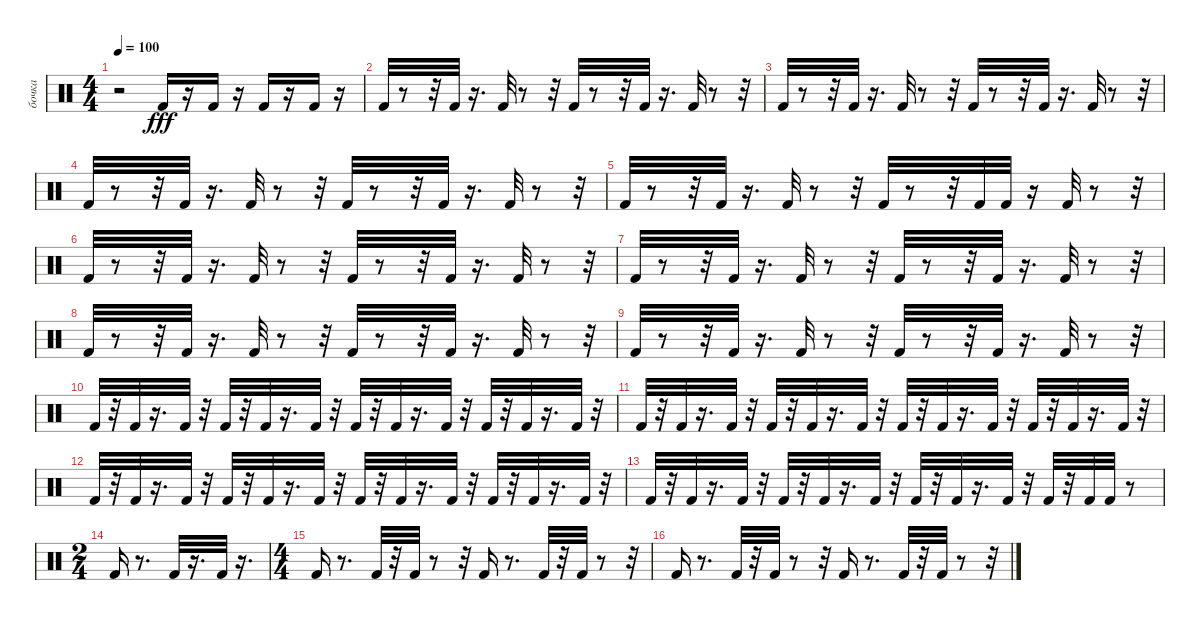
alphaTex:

\track ("бочка" "бочка") {instrument percussion}
\staff {score}
\articulation defaults
\ts (4 4)
\tempo 100
\clef neutral
\ks c
r.2{dy fff} "Kick (hit) 2".16 r.16 "Kick (hit) 2".16 r.16 "Kick (hit) 2".16 r.16 "Kick (hit) 2".16 r.16 |
"Kick (hit) 2".32 r.8 r.32 "Kick (hit) 2".32 r.16{d} "Kick (hit) 2".32 r.8 r.32 "Kick (hit) 2".32 r.8 r.32 "Kick (hit) 2".32 r.16{d} "Kick (hit) 2".32 r.8 r.32 |
"Kick (hit) 2".32 r.8 r.32 "Kick (hit) 2".32 r.16{d} "Kick (hit) 2".32 r.8 r.32 "Kick (hit) 2".32 r.8 r.32 "Kick (hit) 2".32 r.16{d} "Kick (hit) 2".32 r.8 r.32 |
"Kick (hit) 2".32 r.8 r.32 "Kick (hit) 2".32 r.16{d} "Kick (hit) 2".32 r.8 r.32 "Kick (hit) 2".32 r.8 r.32 "Kick (hit) 2".32 r.16{d} "Kick (hit) 2".32 r.8 r.32 |
"Kick (hit) 2".32 r.8 r.32 "Kick (hit) 2".32 r.16{d} "Kick (hit) 2".32 r.8 r.32 "Kick (hit) 2".32 r.8 r.32 "Kick (hit) 2".32 "Kick (hit) 2".32 r.16 "Kick (hit) 2".32 r.8 r.32 |
"Kick (hit) 2".32 r.8 r.32 "Kick (hit) 2".32 r.16{d} "Kick (hit) 2".32 r.8 r.32 "Kick (hit) 2".32 r.8 r.32 "Kick (hit) 2".32 r.16{d} "Kick (hit) 2".32 r.8 r.32 |
"Kick (hit) 2".32 r.8 r.32 "Kick (hit) 2".32 r.16{d} "Kick (hit) 2".32 r.8 r.32 "Kick (hit) 2".32 r.8 r.32 "Kick (hit) 2".32 r.16{d} "Kick (hit) 2".32 r.8 r.32 |
"Kick (hit) 2".32 r.8 r.32 "Kick (hit) 2".32 r.16{d} "Kick (hit) 2".32 r.8 r.32 "Kick (hit) 2".32 r.8 r.32 "Kick (hit) 2".32 r.16{d} "Kick (hit) 2".32 r.8 r.32 |
"Kick (hit) 2".32 r.8 r.32 "Kick (hit) 2".32 r.16{d} "Kick (hit) 2".32 r.8 r.32 "Kick (hit) 2".32 r.8 r.32 "Kick (hit) 2".32 r.16{d} "Kick (hit) 2".32 r.8 r.32 |
"Kick (hit) 2".32 r.32 "Kick (hit) 2".32 r.16{d} "Kick (hit) 2".32 r.32 "Kick (hit) 2".32 r.32 "Kick (hit) 2".32 r.16{d} "Kick (hit) 2".32 r.32 "Kick (hit) 2".32 r.32 "Kick (hit) 2".32 r.16{d} "Kick (hit) 2".32 r.32 "Kick (hit) 2".32 r.32 "Kick (hit) 2".32 r.16{d} "Kick (hit) 2".32 r.32 |
"Kick (hit) 2".32 r.32 "Kick (hit) 2".32 r.16{d} "Kick (hit) 2".32 r.32 "Kick (hit) 2".32 r.32 "Kick (hit) 2".32 r.16{d} "Kick (hit) 2".32 r.32 "Kick (hit) 2".32 r.32 "Kick (hit) 2".32 r.16{d} "Kick (hit) 2".32 r.32 "Kick (hit) 2".32 r.32 "Kick (hit) 2".32 r.16{d} "Kick (hit) 2".32 r.32 |
"Kick (hit) 2".32 r.32 "Kick (hit) 2".32 r.16{d} "Kick (hit) 2".32 r.32 "Kick (hit) 2".32 r.32 "Kick (hit) 2".32 r.16{d} "Kick (hit) 2".32 r.32 "Kick (hit) 2".32 r.32 "Kick (hit) 2".32 r.16{d} "Kick (hit) 2".32 r.32 "Kick (hit) 2".32 r.32 "Kick (hit) 2".32 r.16{d} "Kick (hit) 2".32 r.32 |
"Kick (hit) 2".32 r.32 "Kick (hit) 2".32 r.16{d} "Kick (hit) 2".32 r.32 "Kick (hit) 2".32 r.32 "Kick (hit) 2".32 r.16{d} "Kick (hit) 2".32 r.32 "Kick (hit) 2".32 r.32 "Kick (hit) 2".32 r.16{d} "Kick (hit) 2".32 r.32 "Kick (hit) 2".32 r.32 "Kick (hit) 2".32 "Kick (hit) 2".32 r.8 |
\ts (2 4)
"Kick (hit) 2".16 r.8{d} "Kick (hit) 2".32 r.16{d} "Kick (hit) 2".32 r.16{d} |
\ts (4 4)
"Kick (hit) 2".16 r.8{d} "Kick (hit) 2".32 r.32 "Kick (hit) 2".32 r.8 r.32 "Kick (hit) 2".16 r.8{d} "Kick (hit) 2".32 r.32 "Kick (hit) 2".32 r.8 r.32 |
"Kick (hit) 2".16 r.8{d} "Kick (hit) 2".32 r.32 "Kick (hit) 2".32 r.8 r.32 "Kick (hit) 2".16 r.8{d} "Kick (hit) 2".32 r.32 "Kick (hit) 2".32 r.8 r.32
